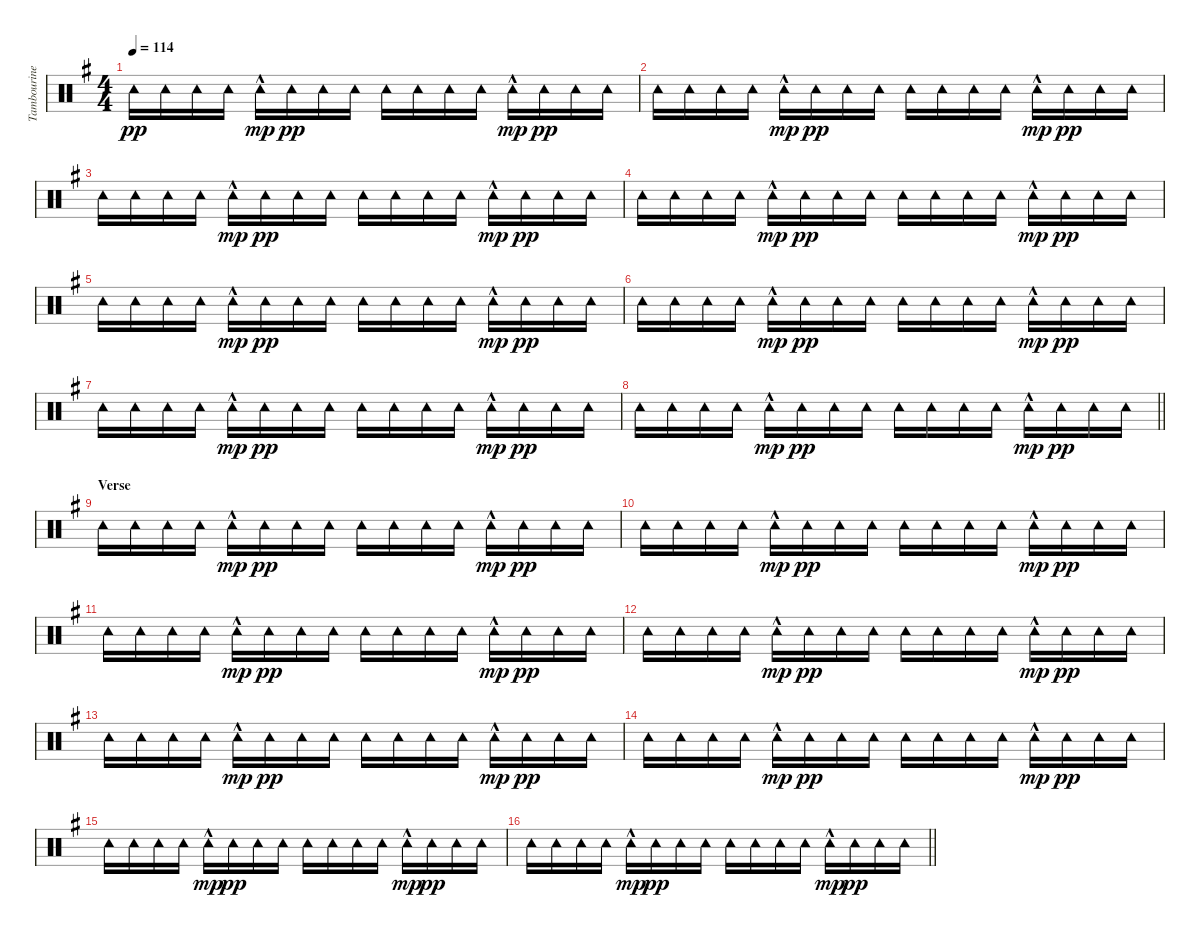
\track ("Tambourine" "Tambourine") {instrument percussion}
\staff {score}
\articulation defaults
\ts (4 4)
\tempo 114
\clef neutral
\ks g "Tambourine (hit)".16{dy pp} "Tambourine (hit)".16 "Tambourine (hit)".16 "Tambourine (hit)".16 "Tambourine (hit)"{hac}.16{dy mp} "Tambourine (hit)".16{dy pp} "Tambourine (hit)".16 "Tambourine (hit)".16 "Tambourine (hit)".16 "Tambourine (hit)".16 "Tambourine (hit)".16 "Tambourine (hit)".16 "Tambourine (hit)"{hac}.16{dy mp} "Tambourine (hit)".16{dy pp} "Tambourine (hit)".16 "Tambourine (hit)".16
|
"Tambourine (hit)".16 "Tambourine (hit)".16 "Tambourine (hit)".16 "Tambourine (hit)".16 "Tambourine (hit)"{hac}.16{dy mp} "Tambourine (hit)".16{dy pp} "Tambourine (hit)".16 "Tambourine (hit)".16 "Tambourine (hit)".16 "Tambourine (hit)".16 "Tambourine (hit)".16 "Tambourine (hit)".16 "Tambourine (hit)"{hac}.16{dy mp} "Tambourine (hit)".16{dy pp} "Tambourine (hit)".16 "Tambourine (hit)".16 |
"Tambourine (hit)".16 "Tambourine (hit)".16 "Tambourine (hit)".16 "Tambourine (hit)".16 "Tambourine (hit)"{hac}.16{dy mp} "Tambourine (hit)".16{dy pp} "Tambourine (hit)".16 "Tambourine (hit)".16 "Tambourine (hit)".16 "Tambourine (hit)".16 "Tambourine (hit)".16 "Tambourine (hit)".16 "Tambourine (hit)"{hac}.16{dy mp} "Tambourine (hit)".16{dy pp} "Tambourine (hit)".16 "Tambourine (hit)".16 |
"Tambourine (hit)".16 "Tambourine (hit)".16 "Tambourine (hit)".16 "Tambourine (hit)".16 "Tambourine (hit)"{hac}.16{dy mp} "Tambourine (hit)".16{dy pp} "Tambourine (hit)".16 "Tambourine (hit)".16 "Tambourine (hit)".16 "Tambourine (hit)".16 "Tambourine (hit)".16 "Tambourine (hit)".16 "Tambourine (hit)"{hac}.16{dy mp} "Tambourine (hit)".16{dy pp} "Tambourine (hit)".16 "Tambourine (hit)".16 |
"Tambourine (hit)".16 "Tambourine (hit)".16 "Tambourine (hit)".16 "Tambourine (hit)".16 "Tambourine (hit)"{hac}.16{dy mp} "Tambourine (hit)".16{dy pp} "Tambourine (hit)".16 "Tambourine (hit)".16 "Tambourine (hit)".16 "Tambourine (hit)".16 "Tambourine (hit)".16 "Tambourine (hit)".16 "Tambourine (hit)"{hac}.16{dy mp} "Tambourine (hit)".16{dy pp} "Tambourine (hit)".16 "Tambourine (hit)".16 |
"Tambourine (hit)".16 "Tambourine (hit)".16 "Tambourine (hit)".16 "Tambourine (hit)".16 "Tambourine (hit)"{hac}.16{dy mp} "Tambourine (hit)".16{dy pp} "Tambourine (hit)".16 "Tambourine (hit)".16 "Tambourine (hit)".16 "Tambourine (hit)".16 "Tambourine (hit)".16 "Tambourine (hit)".16 "Tambourine (hit)"{hac}.16{dy mp} "Tambourine (hit)".16{dy pp} "Tambourine (hit)".16 "Tambourine (hit)".16 |
"Tambourine (hit)".16 "Tambourine (hit)".16 "Tambourine (hit)".16 "Tambourine (hit)".16 "Tambourine (hit)"{hac}.16{dy mp} "Tambourine (hit)".16{dy pp} "Tambourine (hit)".16 "Tambourine (hit)".16 "Tambourine (hit)".16 "Tambourine (hit)".16 "Tambourine (hit)".16 "Tambourine (hit)".16 "Tambourine (hit)"{hac}.16{dy mp} "Tambourine (hit)".16{dy pp} "Tambourine (hit)".16 "Tambourine (hit)".16 |
\barLineRight lightlight "Tambourine (hit)".16 "Tambourine (hit)".16 "Tambourine (hit)".16 "Tambourine (hit)".16 "Tambourine (hit)"{hac}.16{dy mp} "Tambourine (hit)".16{dy pp} "Tambourine (hit)".16 "Tambourine (hit)".16 "Tambourine (hit)".16 "Tambourine (hit)".16 "Tambourine (hit)".16 "Tambourine (hit)".16 "Tambourine (hit)"{hac}.16{dy mp} "Tambourine (hit)".16{dy pp} "Tambourine (hit)".16 "Tambourine (hit)".16
|
\section ("" "Verse")
"Tambourine (hit)".16 "Tambourine (hit)".16 "Tambourine (hit)".16 "Tambourine (hit)".16 "Tambourine (hit)"{hac}.16{dy mp} "Tambourine (hit)".16{dy pp} "Tambourine (hit)".16 "Tambourine (hit)".16 "Tambourine (hit)".16 "Tambourine (hit)".16 "Tambourine (hit)".16 "Tambourine (hit)".16 "Tambourine (hit)"{hac}.16{dy mp} "Tambourine (hit)".16{dy pp} "Tambourine (hit)".16 "Tambourine (hit)".16 |
"Tambourine (hit)".16 "Tambourine (hit)".16 "Tambourine (hit)".16 "Tambourine (hit)".16 "Tambourine (hit)"{hac}.16{dy mp} "Tambourine (hit)".16{dy pp} "Tambourine (hit)".16 "Tambourine (hit)".16 "Tambourine (hit)".16 "Tambourine (hit)".16 "Tambourine (hit)".16 "Tambourine (hit)".16 "Tambourine (hit)"{hac}.16{dy mp} "Tambourine (hit)".16{dy pp} "Tambourine (hit)".16 "Tambourine (hit)".16 |
"Tambourine (hit)".16 "Tambourine (hit)".16 "Tambourine (hit)".16 "Tambourine (hit)".16 "Tambourine (hit)"{hac}.16{dy mp} "Tambourine (hit)".16{dy pp} "Tambourine (hit)".16 "Tambourine (hit)".16 "Tambourine (hit)".16 "Tambourine (hit)".16 "Tambourine (hit)".16 "Tambourine (hit)".16 "Tambourine (hit)"{hac}.16{dy mp} "Tambourine (hit)".16{dy pp} "Tambourine (hit)".16 "Tambourine (hit)".16 |
"Tambourine (hit)".16 "Tambourine (hit)".16 "Tambourine (hit)".16 "Tambourine (hit)".16 "Tambourine (hit)"{hac}.16{dy mp} "Tambourine (hit)".16{dy pp} "Tambourine (hit)".16 "Tambourine (hit)".16 "Tambourine (hit)".16 "Tambourine (hit)".16 "Tambourine (hit)".16 "Tambourine (hit)".16 "Tambourine (hit)"{hac}.16{dy mp} "Tambourine (hit)".16{dy pp} "Tambourine (hit)".16 "Tambourine (hit)".16 |
"Tambourine (hit)".16 "Tambourine (hit)".16 "Tambourine (hit)".16 "Tambourine (hit)".16 "Tambourine (hit)"{hac}.16{dy mp} "Tambourine (hit)".16{dy pp} "Tambourine (hit)".16 "Tambourine (hit)".16 "Tambourine (hit)".16 "Tambourine (hit)".16 "Tambourine (hit)".16 "Tambourine (hit)".16 "Tambourine (hit)"{hac}.16{dy mp} "Tambourine (hit)".16{dy pp} "Tambourine (hit)".16 "Tambourine (hit)".16 |
"Tambourine (hit)".16 "Tambourine (hit)".16 "Tambourine (hit)".16 "Tambourine (hit)".16 "Tambourine (hit)"{hac}.16{dy mp} "Tambourine (hit)".16{dy pp} "Tambourine (hit)".16 "Tambourine (hit)".16 "Tambourine (hit)".16 "Tambourine (hit)".16 "Tambourine (hit)".16 "Tambourine (hit)".16 "Tambourine (hit)"{hac}.16{dy mp} "Tambourine (hit)".16{dy pp} "Tambourine (hit)".16 "Tambourine (hit)".16 |
"Tambourine (hit)".16 "Tambourine (hit)".16 "Tambourine (hit)".16 "Tambourine (hit)".16 "Tambourine (hit)"{hac}.16{dy mp} "Tambourine (hit)".16{dy pp} "Tambourine (hit)".16 "Tambourine (hit)".16 "Tambourine (hit)".16 "Tambourine (hit)".16 "Tambourine (hit)".16 "Tambourine (hit)".16 "Tambourine (hit)"{hac}.16{dy mp} "Tambourine (hit)".16{dy pp} "Tambourine (hit)".16 "Tambourine (hit)".16 |
\barLineRight lightlight "Tambourine (hit)".16 "Tambourine (hit)".16 "Tambourine (hit)".16 "Tambourine (hit)".16 "Tambourine (hit)"{hac}.16{dy mp} "Tambourine (hit)".16{dy pp} "Tambourine (hit)".16 "Tambourine (hit)".16 "Tambourine (hit)".16 "Tambourine (hit)".16 "Tambourine (hit)".16 "Tambourine (hit)".16 "Tambourine (hit)"{hac}.16{dy mp} "Tambourine (hit)".16{dy pp} "Tambourine (hit)".16 "Tambourine (hit)".16
